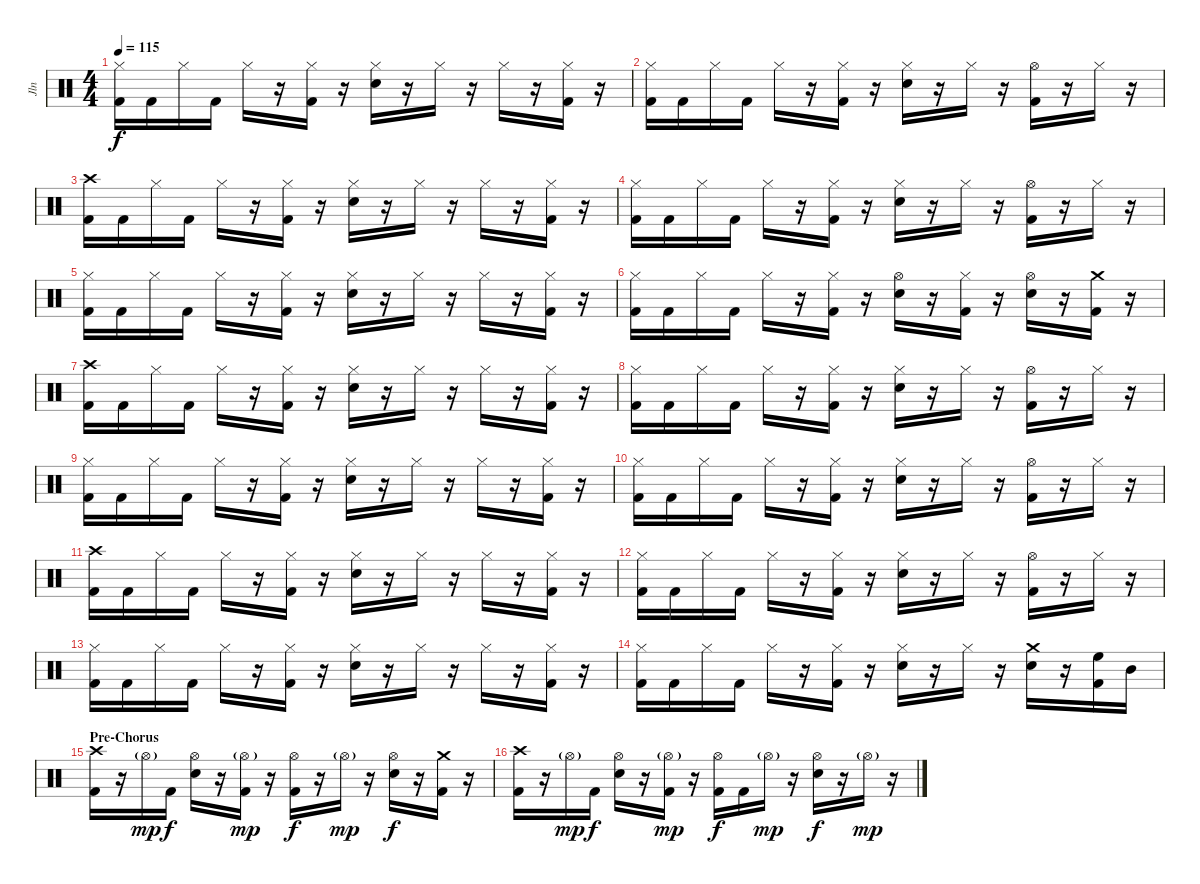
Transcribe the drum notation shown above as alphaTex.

\track ("Jln" "Jln") {instrument percussion}
\staff {score}
\articulation defaults
\ts (4 4)
\tempo 115
\clef neutral
\ks c
("Hi-Hat (closed)" "Kick (hit) 2").16{dy f} "Kick (hit) 2".16 "Hi-Hat (closed)".16 "Kick (hit) 2".16 "Hi-Hat (closed)".16 r.16 ("Hi-Hat (closed)" "Kick (hit) 2").16 r.16 ("Hi-Hat (closed)" "Electric Snare (hit)").16 r.16 "Hi-Hat (closed)".16 r.16 "Hi-Hat (closed)".16 r.16 ("Hi-Hat (closed)" "Kick (hit) 2").16 r.16 |
("Hi-Hat (closed)" "Kick (hit) 2").16 "Kick (hit) 2".16 "Hi-Hat (closed)".16 "Kick (hit) 2".16 "Hi-Hat (closed)".16 r.16 ("Hi-Hat (closed)" "Kick (hit) 2").16 r.16 ("Hi-Hat (closed)" "Electric Snare (hit)").16 r.16 "Hi-Hat (closed)".16 r.16 ("Hi-Hat (open)" "Kick (hit) 2").16 r.16 "Hi-Hat (closed)".16 r.16 |
("Crash high (hit)" "Kick (hit) 2").16 "Kick (hit) 2".16 "Hi-Hat (closed)".16 "Kick (hit) 2".16 "Hi-Hat (closed)".16 r.16 ("Hi-Hat (closed)" "Kick (hit) 2").16 r.16 ("Hi-Hat (closed)" "Electric Snare (hit)").16 r.16 "Hi-Hat (closed)".16 r.16 "Hi-Hat (closed)".16 r.16 ("Hi-Hat (closed)" "Kick (hit) 2").16 r.16 |
("Hi-Hat (closed)" "Kick (hit) 2").16 "Kick (hit) 2".16 "Hi-Hat (closed)".16 "Kick (hit) 2".16 "Hi-Hat (closed)".16 r.16 ("Hi-Hat (closed)" "Kick (hit) 2").16 r.16 ("Hi-Hat (closed)" "Electric Snare (hit)").16 r.16 "Hi-Hat (closed)".16 r.16 ("Hi-Hat (open)" "Kick (hit) 2").16 r.16 "Hi-Hat (closed)".16 r.16 |
("Hi-Hat (closed)" "Kick (hit) 2").16 "Kick (hit) 2".16 "Hi-Hat (closed)".16 "Kick (hit) 2".16 "Hi-Hat (closed)".16 r.16 ("Hi-Hat (closed)" "Kick (hit) 2").16 r.16 ("Hi-Hat (closed)" "Electric Snare (hit)").16 r.16 "Hi-Hat (closed)".16 r.16 "Hi-Hat (closed)".16 r.16 ("Hi-Hat (closed)" "Kick (hit) 2").16 r.16 |
("Hi-Hat (closed)" "Kick (hit) 2").16 "Kick (hit) 2".16 "Hi-Hat (closed)".16 "Kick (hit) 2".16 "Hi-Hat (closed)".16 r.16 ("Hi-Hat (closed)" "Kick (hit) 2").16 r.16 ("Hi-Hat (open)" "Electric Snare (hit)").16 r.16 ("Hi-Hat (closed)" "Kick (hit) 2").16 r.16 ("Hi-Hat (open)" "Electric Snare (hit)").16 r.16 ("Crash medium (hit)" "Kick (hit) 2").16 r.16 |
("Crash high (hit)" "Kick (hit) 2").16 "Kick (hit) 2".16 "Hi-Hat (closed)".16 "Kick (hit) 2".16 "Hi-Hat (closed)".16 r.16 ("Hi-Hat (closed)" "Kick (hit) 2").16 r.16 ("Hi-Hat (closed)" "Electric Snare (hit)").16 r.16 "Hi-Hat (closed)".16 r.16 "Hi-Hat (closed)".16 r.16 ("Hi-Hat (closed)" "Kick (hit) 2").16 r.16 |
("Hi-Hat (closed)" "Kick (hit) 2").16 "Kick (hit) 2".16 "Hi-Hat (closed)".16 "Kick (hit) 2".16 "Hi-Hat (closed)".16 r.16 ("Hi-Hat (closed)" "Kick (hit) 2").16 r.16 ("Hi-Hat (closed)" "Electric Snare (hit)").16 r.16 "Hi-Hat (closed)".16 r.16 ("Hi-Hat (open)" "Kick (hit) 2").16 r.16 "Hi-Hat (closed)".16 r.16 |
("Hi-Hat (closed)" "Kick (hit) 2").16 "Kick (hit) 2".16 "Hi-Hat (closed)".16 "Kick (hit) 2".16 "Hi-Hat (closed)".16 r.16 ("Hi-Hat (closed)" "Kick (hit) 2").16 r.16 ("Hi-Hat (closed)" "Electric Snare (hit)").16 r.16 "Hi-Hat (closed)".16 r.16 "Hi-Hat (closed)".16 r.16 ("Hi-Hat (closed)" "Kick (hit) 2").16 r.16 |
("Hi-Hat (closed)" "Kick (hit) 2").16 "Kick (hit) 2".16 "Hi-Hat (closed)".16 "Kick (hit) 2".16 "Hi-Hat (closed)".16 r.16 ("Hi-Hat (closed)" "Kick (hit) 2").16 r.16 ("Hi-Hat (closed)" "Electric Snare (hit)").16 r.16 "Hi-Hat (closed)".16 r.16 ("Hi-Hat (open)" "Kick (hit) 2").16 r.16 "Hi-Hat (closed)".16 r.16 |
("Crash high (hit)" "Kick (hit) 2").16 "Kick (hit) 2".16 "Hi-Hat (closed)".16 "Kick (hit) 2".16 "Hi-Hat (closed)".16 r.16 ("Hi-Hat (closed)" "Kick (hit) 2").16 r.16 ("Hi-Hat (closed)" "Electric Snare (hit)").16 r.16 "Hi-Hat (closed)".16 r.16 "Hi-Hat (closed)".16 r.16 ("Hi-Hat (closed)" "Kick (hit) 2").16 r.16 |
("Hi-Hat (closed)" "Kick (hit) 2").16 "Kick (hit) 2".16 "Hi-Hat (closed)".16 "Kick (hit) 2".16 "Hi-Hat (closed)".16 r.16 ("Hi-Hat (closed)" "Kick (hit) 2").16 r.16 ("Hi-Hat (closed)" "Electric Snare (hit)").16 r.16 "Hi-Hat (closed)".16 r.16 ("Hi-Hat (open)" "Kick (hit) 2").16 r.16 "Hi-Hat (closed)".16 r.16 |
("Hi-Hat (closed)" "Kick (hit) 2").16 "Kick (hit) 2".16 "Hi-Hat (closed)".16 "Kick (hit) 2".16 "Hi-Hat (closed)".16 r.16 ("Hi-Hat (closed)" "Kick (hit) 2").16 r.16 ("Hi-Hat (closed)" "Electric Snare (hit)").16 r.16 "Hi-Hat (closed)".16 r.16 "Hi-Hat (closed)".16 r.16 ("Hi-Hat (closed)" "Kick (hit) 2").16 r.16 |
("Hi-Hat (closed)" "Kick (hit) 2").16 "Kick (hit) 2".16 "Hi-Hat (closed)".16 "Kick (hit) 2".16 "Hi-Hat (closed)".16 r.16 ("Hi-Hat (closed)" "Kick (hit) 2").16 r.16 ("Hi-Hat (closed)" "Electric Snare (hit)").16 r.16 "Hi-Hat (closed)".16 r.16 ("Crash medium (hit)" "Electric Snare (hit)").16 r.16 ("High Floor Tom (hit)" "Kick (hit) 2").16 "Mid Tom (hit)".16 |
\section ("" "Pre-Chorus")
("Crash high (hit)" "Kick (hit) 2").16 r.16 "Hi-Hat (open)"{g}.16{dy mp} "Kick (hit) 2".16{dy f} ("Hi-Hat (open)" "Electric Snare (hit)").16 r.16 ("Hi-Hat (open)"{g} "Kick (hit) 2").16{dy mp} r.16 ("Hi-Hat (open)" "Kick (hit) 2").16{dy f} r.16 "Hi-Hat (open)"{g}.16{dy mp} r.16 ("Hi-Hat (open)" "Electric Snare (hit)").16{dy f} r.16 ("Crash medium (hit)" "Kick (hit) 2").16 r.16 |
("Crash high (hit)" "Kick (hit) 2").16 r.16 "Hi-Hat (open)"{g}.16{dy mp} "Kick (hit) 2".16{dy f} ("Hi-Hat (open)" "Electric Snare (hit)").16 r.16 ("Hi-Hat (open)"{g} "Kick (hit) 2").16{dy mp} r.16 ("Hi-Hat (open)" "Kick (hit) 2").16{dy f} "Kick (hit) 2".16 "Hi-Hat (open)"{g}.16{dy mp} r.16 ("Hi-Hat (open)" "Electric Snare (hit)").16{dy f} r.16 "Hi-Hat (open)"{g}.16{dy mp} r.16
